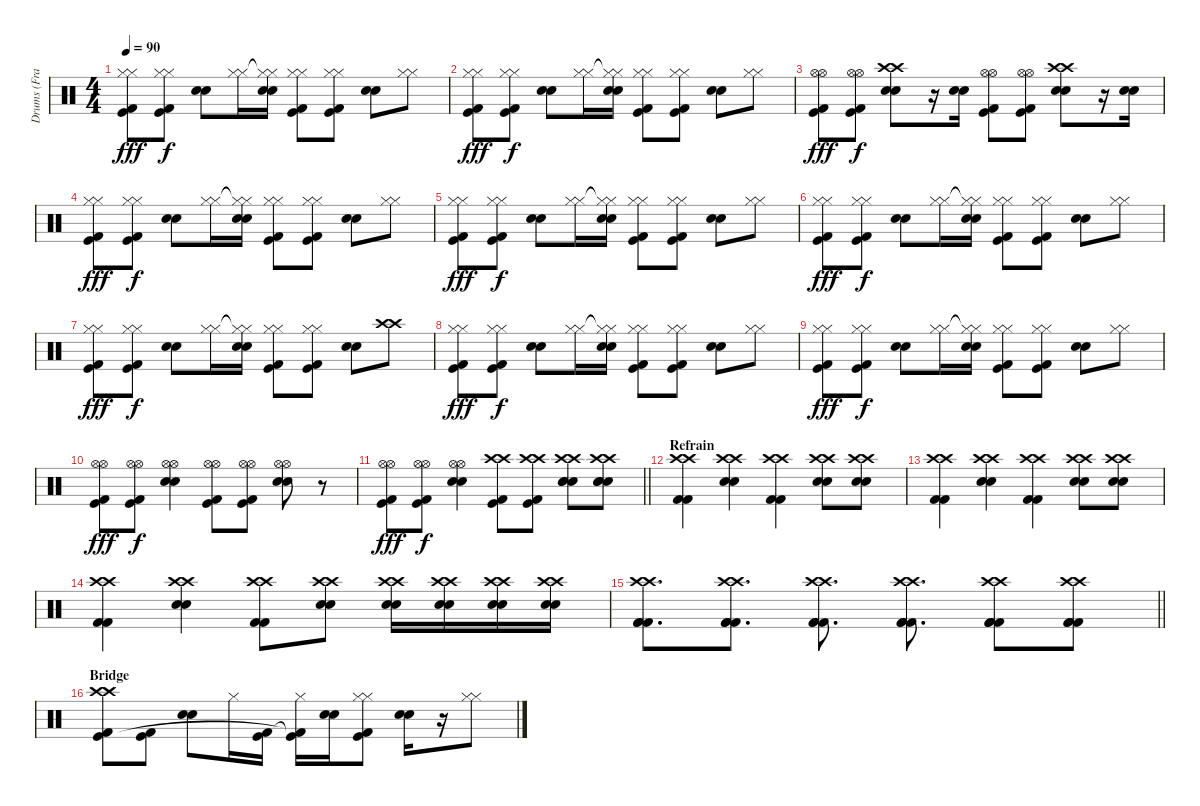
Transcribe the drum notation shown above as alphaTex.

\track ("Drums (Frank Ferrer)" "Drums (Fra") {instrument percussion}
\staff {score}
\articulation defaults
\ts (4 4)
\tempo 90
\clef neutral
\ks c
("Hi-Hat (closed)" "Hi-Hat (closed)" "Kick (hit)" "Kick (hit) 2").8{dy fff} ("Hi-Hat (closed)" "Hi-Hat (closed)" "Kick (hit)" "Kick (hit) 2").8{dy f} ("Snare (hit) 2" "Snare (hit) 2").8 ("Hi-Hat (closed)" "Hi-Hat (closed)").16 ("Hi-Hat (closed)"{t} "Hi-Hat (closed)"{t} "Snare (hit) 2" "Snare (hit) 2").16 ("Hi-Hat (closed)" "Hi-Hat (closed)" "Kick (hit)" "Kick (hit) 2").8 ("Hi-Hat (closed)" "Hi-Hat (closed)" "Kick (hit)" "Kick (hit) 2").8 ("Snare (hit) 2" "Snare (hit) 2").8 ("Hi-Hat (closed)" "Hi-Hat (closed)").8 |
("Hi-Hat (closed)" "Hi-Hat (closed)" "Kick (hit)" "Kick (hit) 2").8{dy fff} ("Hi-Hat (closed)" "Hi-Hat (closed)" "Kick (hit)" "Kick (hit) 2").8{dy f} ("Snare (hit) 2" "Snare (hit) 2").8 ("Hi-Hat (closed)" "Hi-Hat (closed)").16 ("Hi-Hat (closed)"{t} "Hi-Hat (closed)"{t} "Snare (hit) 2" "Snare (hit) 2").16 ("Hi-Hat (closed)" "Hi-Hat (closed)" "Kick (hit)" "Kick (hit) 2").8 ("Hi-Hat (closed)" "Hi-Hat (closed)" "Kick (hit)" "Kick (hit) 2").8 ("Snare (hit) 2" "Snare (hit) 2").8 ("Hi-Hat (closed)" "Hi-Hat (closed)").8 |
("Hi-Hat (open)" "Hi-Hat (open)" "Kick (hit)" "Kick (hit) 2").8{dy fff} ("Hi-Hat (open)" "Hi-Hat (open)" "Kick (hit)" "Kick (hit) 2").8{dy f} ("Crash high (hit)" "Crash high (hit)" "Snare (hit) 2" "Snare (hit) 2").8 r.16 ("Snare (hit) 2" "Snare (hit) 2").16 ("Hi-Hat (open)" "Hi-Hat (open)" "Kick (hit)" "Kick (hit) 2").8 ("Hi-Hat (open)" "Hi-Hat (open)" "Kick (hit)" "Kick (hit) 2").8 ("Crash high (hit)" "Crash high (hit)" "Snare (hit) 2" "Snare (hit) 2").8 r.16 ("Snare (hit) 2" "Snare (hit) 2").16 |
("Hi-Hat (closed)" "Hi-Hat (closed)" "Kick (hit)" "Kick (hit) 2").8{dy fff} ("Hi-Hat (closed)" "Hi-Hat (closed)" "Kick (hit)" "Kick (hit) 2").8{dy f} ("Snare (hit) 2" "Snare (hit) 2").8 ("Hi-Hat (closed)" "Hi-Hat (closed)").16 ("Hi-Hat (closed)"{t} "Hi-Hat (closed)"{t} "Snare (hit) 2" "Snare (hit) 2").16 ("Hi-Hat (closed)" "Hi-Hat (closed)" "Kick (hit)" "Kick (hit) 2").8 ("Hi-Hat (closed)" "Hi-Hat (closed)" "Kick (hit)" "Kick (hit) 2").8 ("Snare (hit) 2" "Snare (hit) 2").8 ("Hi-Hat (closed)" "Hi-Hat (closed)").8 |
("Hi-Hat (closed)" "Hi-Hat (closed)" "Kick (hit)" "Kick (hit) 2").8{dy fff} ("Hi-Hat (closed)" "Hi-Hat (closed)" "Kick (hit)" "Kick (hit) 2").8{dy f} ("Snare (hit) 2" "Snare (hit) 2").8 ("Hi-Hat (closed)" "Hi-Hat (closed)").16 ("Hi-Hat (closed)"{t} "Hi-Hat (closed)"{t} "Snare (hit) 2" "Snare (hit) 2").16 ("Hi-Hat (closed)" "Hi-Hat (closed)" "Kick (hit)" "Kick (hit) 2").8 ("Hi-Hat (closed)" "Hi-Hat (closed)" "Kick (hit)" "Kick (hit) 2").8 ("Snare (hit) 2" "Snare (hit) 2").8 ("Hi-Hat (closed)" "Hi-Hat (closed)").8 |
("Hi-Hat (closed)" "Hi-Hat (closed)" "Kick (hit)" "Kick (hit) 2").8{dy fff} ("Hi-Hat (closed)" "Hi-Hat (closed)" "Kick (hit)" "Kick (hit) 2").8{dy f} ("Snare (hit) 2" "Snare (hit) 2").8 ("Hi-Hat (closed)" "Hi-Hat (closed)").16 ("Hi-Hat (closed)"{t} "Hi-Hat (closed)"{t} "Snare (hit) 2" "Snare (hit) 2").16 ("Hi-Hat (closed)" "Hi-Hat (closed)" "Kick (hit)" "Kick (hit) 2").8 ("Hi-Hat (closed)" "Hi-Hat (closed)" "Kick (hit)" "Kick (hit) 2").8 ("Snare (hit) 2" "Snare (hit) 2").8 ("Hi-Hat (closed)" "Hi-Hat (closed)").8 |
("Hi-Hat (closed)" "Hi-Hat (closed)" "Kick (hit)" "Kick (hit) 2").8{dy fff} ("Hi-Hat (closed)" "Hi-Hat (closed)" "Kick (hit)" "Kick (hit) 2").8{dy f} ("Snare (hit) 2" "Snare (hit) 2").8 ("Hi-Hat (closed)" "Hi-Hat (closed)").16 ("Hi-Hat (closed)"{t} "Hi-Hat (closed)"{t} "Snare (hit) 2" "Snare (hit) 2").16 ("Hi-Hat (closed)" "Hi-Hat (closed)" "Kick (hit)" "Kick (hit) 2").8 ("Hi-Hat (closed)" "Hi-Hat (closed)" "Kick (hit)" "Kick (hit) 2").8 ("Snare (hit) 2" "Snare (hit) 2").8 ("Crash high (hit)" "Crash high (hit)").8 |
("Hi-Hat (closed)" "Hi-Hat (closed)" "Kick (hit)" "Kick (hit) 2").8{dy fff} ("Hi-Hat (closed)" "Hi-Hat (closed)" "Kick (hit)" "Kick (hit) 2").8{dy f} ("Snare (hit) 2" "Snare (hit) 2").8 ("Hi-Hat (closed)" "Hi-Hat (closed)").16 ("Hi-Hat (closed)"{t} "Hi-Hat (closed)"{t} "Snare (hit) 2" "Snare (hit) 2").16 ("Hi-Hat (closed)" "Hi-Hat (closed)" "Kick (hit)" "Kick (hit) 2").8 ("Hi-Hat (closed)" "Hi-Hat (closed)" "Kick (hit)" "Kick (hit) 2").8 ("Snare (hit) 2" "Snare (hit) 2").8 ("Hi-Hat (closed)" "Hi-Hat (closed)").8 |
("Hi-Hat (closed)" "Hi-Hat (closed)" "Kick (hit)" "Kick (hit) 2").8{dy fff} ("Hi-Hat (closed)" "Hi-Hat (closed)" "Kick (hit)" "Kick (hit) 2").8{dy f} ("Snare (hit) 2" "Snare (hit) 2").8 ("Hi-Hat (closed)" "Hi-Hat (closed)").16 ("Hi-Hat (closed)"{t} "Hi-Hat (closed)"{t} "Snare (hit) 2" "Snare (hit) 2").16 ("Hi-Hat (closed)" "Hi-Hat (closed)" "Kick (hit)" "Kick (hit) 2").8 ("Hi-Hat (closed)" "Hi-Hat (closed)" "Kick (hit)" "Kick (hit) 2").8 ("Snare (hit) 2" "Snare (hit) 2").8 ("Hi-Hat (closed)" "Hi-Hat (closed)").8 |
("Hi-Hat (open)" "Hi-Hat (open)" "Kick (hit)" "Kick (hit) 2").8{dy fff} ("Hi-Hat (open)" "Hi-Hat (open)" "Kick (hit)" "Kick (hit) 2").8{dy f} ("Hi-Hat (open)" "Hi-Hat (open)" "Snare (hit) 2" "Snare (hit) 2").4 ("Hi-Hat (open)" "Hi-Hat (open)" "Kick (hit)" "Kick (hit) 2").8 ("Hi-Hat (open)" "Hi-Hat (open)" "Kick (hit)" "Kick (hit) 2").8 ("Hi-Hat (open)" "Hi-Hat (open)" "Snare (hit) 2" "Snare (hit) 2").8 r.8 |
\barLineRight lightlight
("Hi-Hat (open)" "Hi-Hat (open)" "Kick (hit)" "Kick (hit) 2").8{dy fff} ("Hi-Hat (open)" "Hi-Hat (open)" "Kick (hit)" "Kick (hit) 2").8{dy f} ("Hi-Hat (open)" "Hi-Hat (open)" "Snare (hit) 2" "Snare (hit) 2").4 ("Crash high (hit)" "Crash high (hit)" "Kick (hit)" "Kick (hit) 2").8 ("Crash high (hit)" "Crash high (hit)" "Kick (hit)" "Kick (hit) 2").8 ("Crash high (hit)" "Crash high (hit)" "Snare (hit) 2" "Snare (hit) 2" "Snare (hit) 2").8 ("Crash high (hit)" "Crash high (hit)" "Snare (hit) 2" "Snare (hit) 2" "Snare (hit) 2").8 |
\section ("" "Refrain")
("Crash high (hit)" "Crash high (hit)" "Kick (hit) 2" "Kick (hit) 2").4 ("Crash high (hit)" "Crash high (hit)" "Snare (hit) 2" "Snare (hit) 2").4 ("Crash high (hit)" "Crash high (hit)" "Kick (hit) 2" "Kick (hit) 2").4 ("Crash high (hit)" "Crash high (hit)" "Snare (hit) 2" "Snare (hit) 2").8 ("Crash high (hit)" "Crash high (hit)" "Snare (hit) 2" "Snare (hit) 2").8 |
("Crash high (hit)" "Crash high (hit)" "Kick (hit) 2" "Kick (hit) 2").4 ("Crash high (hit)" "Crash high (hit)" "Snare (hit) 2" "Snare (hit) 2").4 ("Crash high (hit)" "Crash high (hit)" "Kick (hit) 2" "Kick (hit) 2").4 ("Crash high (hit)" "Crash high (hit)" "Snare (hit) 2" "Snare (hit) 2").8 ("Crash high (hit)" "Crash high (hit)" "Snare (hit) 2" "Snare (hit) 2").8 |
("Crash high (hit)" "Crash high (hit)" "Kick (hit) 2" "Kick (hit) 2").4 ("Crash high (hit)" "Crash high (hit)" "Snare (hit) 2" "Snare (hit) 2").4 ("Crash high (hit)" "Crash high (hit)" "Kick (hit) 2" "Kick (hit) 2").8 ("Crash high (hit)" "Crash high (hit)" "Snare (hit) 2" "Snare (hit) 2").8 ("Crash high (hit)" "Crash high (hit)" "Snare (hit) 2" "Snare (hit) 2").16 ("Crash high (hit)" "Crash high (hit)" "Snare (hit) 2" "Snare (hit) 2").16 ("Crash high (hit)" "Crash high (hit)" "Snare (hit) 2" "Snare (hit) 2").16 ("Crash high (hit)" "Crash high (hit)" "Snare (hit) 2" "Snare (hit) 2").16 |
\barLineRight lightlight
("Crash high (hit)" "Crash high (hit)" "Kick (hit) 2" "Kick (hit) 2" "Kick (hit) 2").8{d} ("Crash high (hit)" "Crash high (hit)" "Kick (hit) 2" "Kick (hit) 2" "Kick (hit) 2").8{d} ("Crash high (hit)" "Crash high (hit)" "Kick (hit) 2" "Kick (hit) 2" "Kick (hit) 2").8{d} ("Crash high (hit)" "Crash high (hit)" "Kick (hit) 2" "Kick (hit) 2" "Kick (hit) 2").8{d} ("Crash high (hit)" "Crash high (hit)" "Kick (hit) 2" "Kick (hit) 2" "Kick (hit) 2").8 ("Crash high (hit)" "Crash high (hit)" "Kick (hit) 2" "Kick (hit) 2" "Kick (hit) 2").8 |
\section ("" "Bridge")
("Crash high (hit)" "Crash high (hit)" "Kick (hit)" "Kick (hit) 2").8 ("Kick (hit)" "Kick (hit) 2").8 ("Snare (hit) 2" "Snare (hit) 2").8 "Hi-Hat (closed)".16 ("Kick (hit)" "Kick (hit) 2").16 ("Hi-Hat (closed)" "Kick (hit)"{t} "Kick (hit) 2"{t}).16 ("Snare (hit) 2" "Snare (hit) 2").16 ("Hi-Hat (closed)" "Hi-Hat (closed)" "Kick (hit)" "Kick (hit) 2").8 ("Snare (hit) 2" "Snare (hit) 2").16 r.16 ("Hi-Hat (closed)" "Hi-Hat (closed)").8
